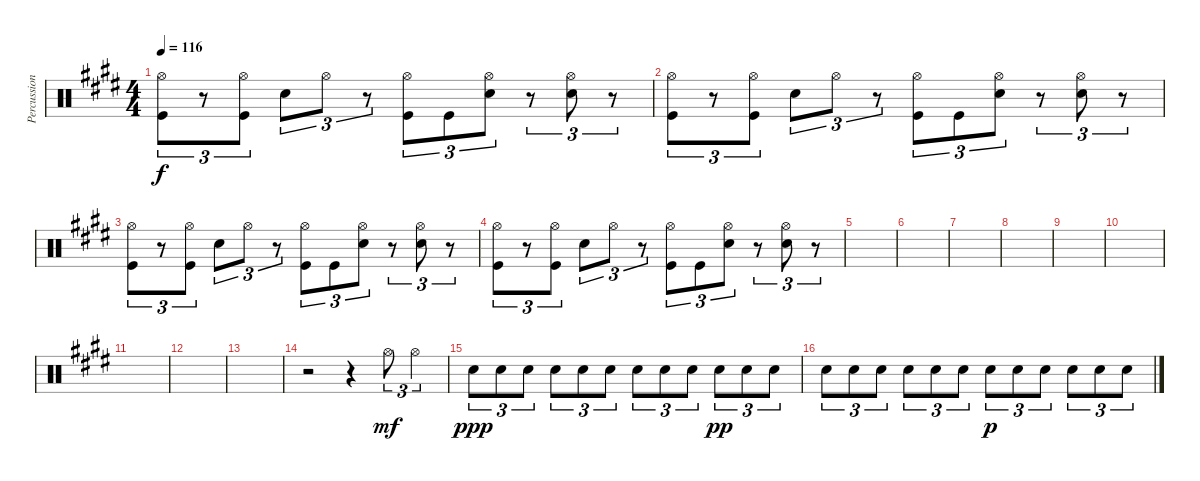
\track ("Percussion" "Percussion") {instrument percussion}
\staff {score}
\articulation defaults
\ts (4 4)
\tempo 116
\clef neutral
\ks c#minor
("Hi-Hat (open)" "Kick (hit)").8{tu (3 2) dy f} r.8{tu (3 2)} ("Hi-Hat (open)" "Kick (hit)").8{tu (3 2)} "Snare (hit) 2".8{tu (3 2)} "Hi-Hat (open)".8{tu (3 2)} r.8{tu (3 2)} ("Hi-Hat (open)" "Kick (hit)").8{tu (3 2)} "Kick (hit)".8{tu (3 2)} ("Hi-Hat (open)" "Snare (hit) 2").8{tu (3 2)} r.8{tu (3 2)} ("Hi-Hat (open)" "Snare (hit) 2").8{tu (3 2)} r.8{tu (3 2)} |
("Hi-Hat (open)" "Kick (hit)").8{tu (3 2)} r.8{tu (3 2)} ("Hi-Hat (open)" "Kick (hit)").8{tu (3 2)} "Snare (hit) 2".8{tu (3 2)} "Hi-Hat (open)".8{tu (3 2)} r.8{tu (3 2)} ("Hi-Hat (open)" "Kick (hit)").8{tu (3 2)} "Kick (hit)".8{tu (3 2)} ("Hi-Hat (open)" "Snare (hit) 2").8{tu (3 2)} r.8{tu (3 2)} ("Hi-Hat (open)" "Snare (hit) 2").8{tu (3 2)} r.8{tu (3 2)} |
("Hi-Hat (open)" "Kick (hit)").8{tu (3 2)} r.8{tu (3 2)} ("Hi-Hat (open)" "Kick (hit)").8{tu (3 2)} "Snare (hit) 2".8{tu (3 2)} "Hi-Hat (open)".8{tu (3 2)} r.8{tu (3 2)} ("Hi-Hat (open)" "Kick (hit)").8{tu (3 2)} "Kick (hit)".8{tu (3 2)} ("Hi-Hat (open)" "Snare (hit) 2").8{tu (3 2)} r.8{tu (3 2)} ("Hi-Hat (open)" "Snare (hit) 2").8{tu (3 2)} r.8{tu (3 2)} |
("Hi-Hat (open)" "Kick (hit)").8{tu (3 2)} r.8{tu (3 2)} ("Hi-Hat (open)" "Kick (hit)").8{tu (3 2)} "Snare (hit) 2".8{tu (3 2)} "Hi-Hat (open)".8{tu (3 2)} r.8{tu (3 2)} ("Hi-Hat (open)" "Kick (hit)").8{tu (3 2)} "Kick (hit)".8{tu (3 2)} ("Hi-Hat (open)" "Snare (hit) 2").8{tu (3 2)} r.8{tu (3 2)} ("Hi-Hat (open)" "Snare (hit) 2").8{tu (3 2)} r.8{tu (3 2)} |
|
|
|
|
|
|
|
|
|
r.2 r.4 "Hi-Hat (open)".8{tu (3 2) dy mf} "Hi-Hat (open)".4{tu (3 2)} |
"Snare (hit) 2".8{tu (3 2) dy ppp} "Snare (hit) 2".8{tu (3 2)} "Snare (hit) 2".8{tu (3 2)} "Snare (hit) 2".8{tu (3 2)} "Snare (hit) 2".8{tu (3 2)} "Snare (hit) 2".8{tu (3 2)} "Snare (hit) 2".8{tu (3 2)} "Snare (hit) 2".8{tu (3 2)} "Snare (hit) 2".8{tu (3 2)} "Snare (hit) 2".8{tu (3 2) dy pp} "Snare (hit) 2".8{tu (3 2)} "Snare (hit) 2".8{tu (3 2)} |
"Snare (hit) 2".8{tu (3 2)} "Snare (hit) 2".8{tu (3 2)} "Snare (hit) 2".8{tu (3 2)} "Snare (hit) 2".8{tu (3 2)} "Snare (hit) 2".8{tu (3 2)} "Snare (hit) 2".8{tu (3 2)} "Snare (hit) 2".8{tu (3 2) dy p} "Snare (hit) 2".8{tu (3 2)} "Snare (hit) 2".8{tu (3 2)} "Snare (hit) 2".8{tu (3 2)} "Snare (hit) 2".8{tu (3 2)} "Snare (hit) 2".8{tu (3 2)}
